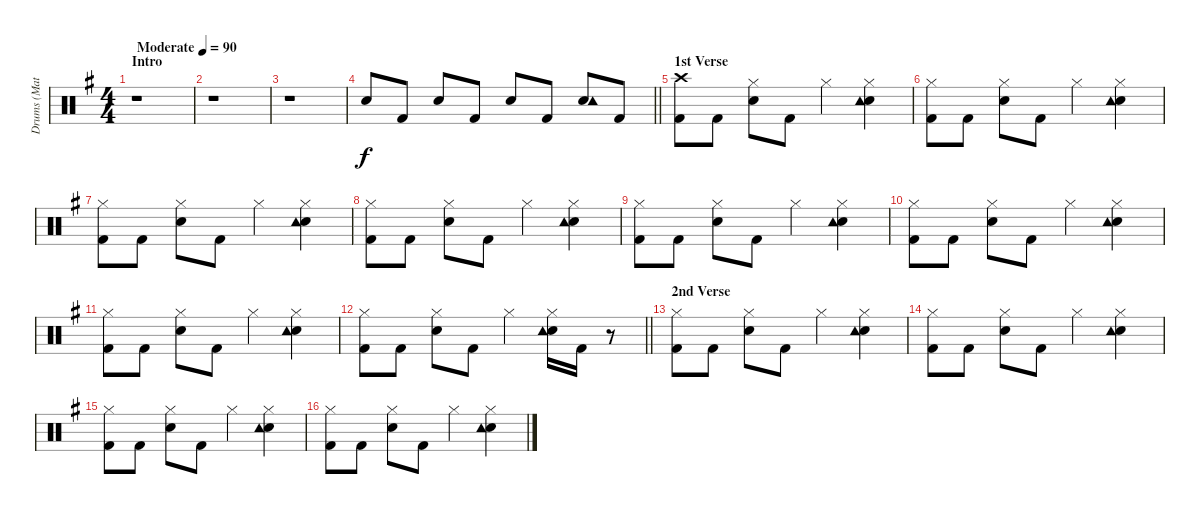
\track ("Drums (Matt)" "Drums (Mat") {instrument percussion}
\staff {score}
\articulation defaults
\ts (4 4)
\section ("" "Intro")
\tempo (90 "Moderate")
\clef neutral
\ks g
r.1{dy f} |
r.1 |
r.1 |
\barLineRight lightlight "Snare (hit) 2".8 "Kick (hit) 2".8 "Snare (hit) 2".8 "Kick (hit) 2".8 "Snare (hit) 2".8 "Kick (hit) 2".8
("Snare (hit) 2" "Tambourine (hit)").8 "Kick (hit) 2".8 |
\section ("" "1st Verse")
("Crash high (hit)" "Kick (hit) 2").8 "Kick (hit) 2".8 ("Hi-Hat (closed)" "Snare (hit) 2").8 "Kick (hit) 2".8 "Hi-Hat (closed)".4 ("Hi-Hat (closed)" "Snare (hit) 2" "Tambourine (hit)").4 |
("Hi-Hat (closed)" "Kick (hit) 2").8 "Kick (hit) 2".8 ("Hi-Hat (closed)" "Snare (hit) 2").8 "Kick (hit) 2".8 "Hi-Hat (closed)".4 ("Hi-Hat (closed)" "Snare (hit) 2" "Tambourine (hit)").4 |
("Hi-Hat (closed)" "Kick (hit) 2").8 "Kick (hit) 2".8 ("Hi-Hat (closed)" "Snare (hit) 2").8 "Kick (hit) 2".8 "Hi-Hat (closed)".4 ("Hi-Hat (closed)" "Snare (hit) 2" "Tambourine (hit)").4 |
("Hi-Hat (closed)" "Kick (hit) 2").8 "Kick (hit) 2".8 ("Hi-Hat (closed)" "Snare (hit) 2").8 "Kick (hit) 2".8 "Hi-Hat (closed)".4 ("Hi-Hat (closed)" "Snare (hit) 2" "Tambourine (hit)").4 |
("Hi-Hat (closed)" "Kick (hit) 2").8 "Kick (hit) 2".8 ("Hi-Hat (closed)" "Snare (hit) 2").8 "Kick (hit) 2".8 "Hi-Hat (closed)".4 ("Hi-Hat (closed)" "Snare (hit) 2" "Tambourine (hit)").4 |
("Hi-Hat (closed)" "Kick (hit) 2").8 "Kick (hit) 2".8 ("Hi-Hat (closed)" "Snare (hit) 2").8 "Kick (hit) 2".8 "Hi-Hat (closed)".4 ("Hi-Hat (closed)" "Snare (hit) 2" "Tambourine (hit)").4 |
("Hi-Hat (closed)" "Kick (hit) 2").8 "Kick (hit) 2".8 ("Hi-Hat (closed)" "Snare (hit) 2").8 "Kick (hit) 2".8 "Hi-Hat (closed)".4 ("Hi-Hat (closed)" "Snare (hit) 2" "Tambourine (hit)").4 |
\barLineRight lightlight
("Hi-Hat (closed)" "Kick (hit) 2").8 "Kick (hit) 2".8 ("Hi-Hat (closed)" "Snare (hit) 2").8 "Kick (hit) 2".8 "Hi-Hat (closed)".4 ("Hi-Hat (closed)" "Snare (hit) 2" "Tambourine (hit)").16 "Kick (hit) 2".16 r.8 |
\section ("" "2nd Verse")
("Hi-Hat (closed)" "Kick (hit) 2").8 "Kick (hit) 2".8 ("Hi-Hat (closed)" "Snare (hit) 2").8 "Kick (hit) 2".8 "Hi-Hat (closed)".4 ("Hi-Hat (closed)" "Snare (hit) 2" "Tambourine (hit)").4 |
("Hi-Hat (closed)" "Kick (hit) 2").8 "Kick (hit) 2".8 ("Hi-Hat (closed)" "Snare (hit) 2").8 "Kick (hit) 2".8 "Hi-Hat (closed)".4 ("Hi-Hat (closed)" "Snare (hit) 2" "Tambourine (hit)").4 |
("Hi-Hat (closed)" "Kick (hit) 2").8 "Kick (hit) 2".8 ("Hi-Hat (closed)" "Snare (hit) 2").8 "Kick (hit) 2".8 "Hi-Hat (closed)".4 ("Hi-Hat (closed)" "Snare (hit) 2" "Tambourine (hit)").4 |
("Hi-Hat (closed)" "Kick (hit) 2").8 "Kick (hit) 2".8 ("Hi-Hat (closed)" "Snare (hit) 2").8 "Kick (hit) 2".8 "Hi-Hat (closed)".4 ("Hi-Hat (closed)" "Snare (hit) 2" "Tambourine (hit)").4
